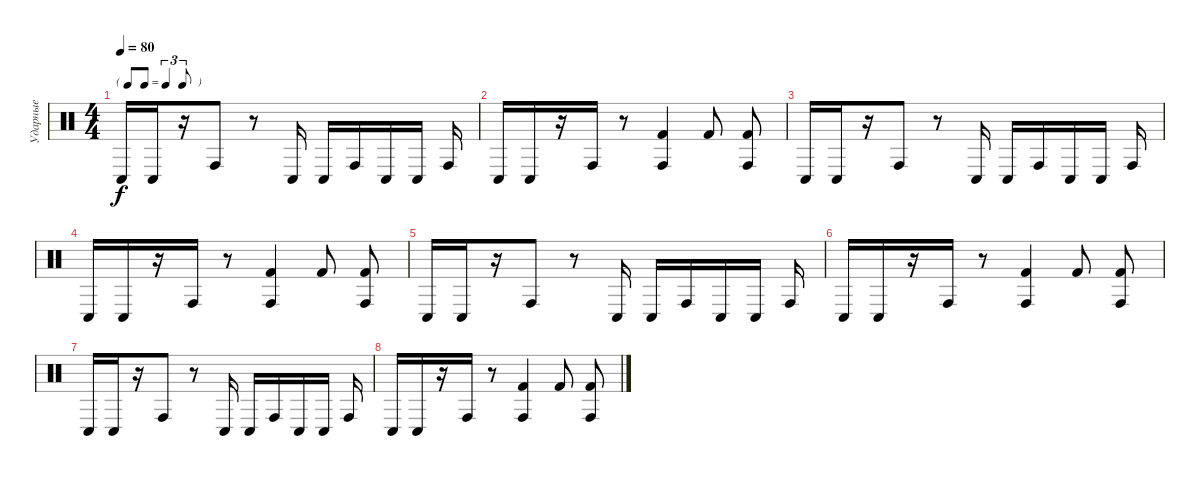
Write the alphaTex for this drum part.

\track ("Ударные" "Ударные") {instrument percussion}
\staff {score}
\articulation defaults
\ts (4 4)
\tf triplet8th
\tempo 80
\clef neutral
\ks c "Conga low (hit)".16{dy f} "Conga low (hit)".16
r.16 "Conga high (hit)".8 r.8 "Conga low (hit)".16 "Conga low (hit)".16 "Conga high (hit)".16 "Conga low (hit)".16 "Conga low (hit)".16 "Conga high (hit)".16 |
"Conga low (hit)".16 "Conga low (hit)".16 r.16 "Conga high (hit)".16 r.8 ("Conga high (hit)" "Kick (hit) 2").4 "Kick (hit) 2".8 ("Conga high (hit)" "Kick (hit) 2").8 |
"Conga low (hit)".16 "Conga low (hit)".16 r.16 "Conga high (hit)".8 r.8 "Conga low (hit)".16 "Conga low (hit)".16 "Conga high (hit)".16 "Conga low (hit)".16 "Conga low (hit)".16 "Conga high (hit)".16 |
"Conga low (hit)".16 "Conga low (hit)".16 r.16 "Conga high (hit)".16 r.8 ("Conga high (hit)" "Kick (hit) 2").4 "Kick (hit) 2".8 ("Conga high (hit)" "Kick (hit) 2").8 |
"Conga low (hit)".16 "Conga low (hit)".16 r.16 "Conga high (hit)".8 r.8 "Conga low (hit)".16 "Conga low (hit)".16 "Conga high (hit)".16 "Conga low (hit)".16 "Conga low (hit)".16 "Conga high (hit)".16 |
"Conga low (hit)".16 "Conga low (hit)".16 r.16 "Conga high (hit)".16 r.8 ("Conga high (hit)" "Kick (hit) 2").4 "Kick (hit) 2".8 ("Conga high (hit)" "Kick (hit) 2").8 |
"Conga low (hit)".16 "Conga low (hit)".16 r.16 "Conga high (hit)".8 r.8 "Conga low (hit)".16 "Conga low (hit)".16 "Conga high (hit)".16 "Conga low (hit)".16 "Conga low (hit)".16 "Conga high (hit)".16 |
"Conga low (hit)".16 "Conga low (hit)".16 r.16 "Conga high (hit)".16 r.8 ("Conga high (hit)" "Kick (hit) 2").4 "Kick (hit) 2".8 ("Conga high (hit)" "Kick (hit) 2").8
